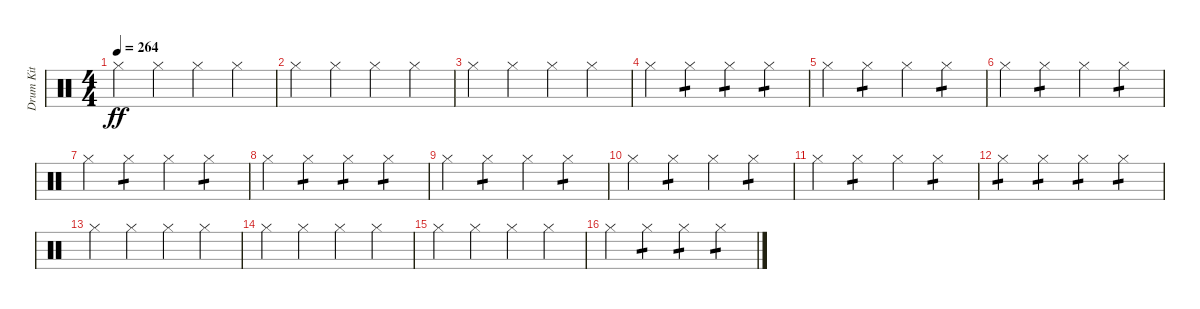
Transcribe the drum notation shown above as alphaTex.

\track ("Drum Kit" "Drum Kit") {instrument percussion}
\staff {score}
\articulation defaults
\ts (4 4)
\tempo 264
\clef neutral
\ks c "Hi-Hat (closed)".4{dy ff} "Hi-Hat (closed)".4 "Hi-Hat (closed)".4 "Hi-Hat (closed)".4
|
"Hi-Hat (closed)".4 "Hi-Hat (closed)".4 "Hi-Hat (closed)".4 "Hi-Hat (closed)".4 |
"Hi-Hat (closed)".4 "Hi-Hat (closed)".4 "Hi-Hat (closed)".4 "Hi-Hat (closed)".4 |
"Hi-Hat (closed)".4 "Hi-Hat (closed)".4{tp 1} "Hi-Hat (closed)".4{tp 1} "Hi-Hat (closed)".4{tp 1} |
"Hi-Hat (closed)".4 "Hi-Hat (closed)".4{tp 1} "Hi-Hat (closed)".4 "Hi-Hat (closed)".4{tp 1} |
"Hi-Hat (closed)".4 "Hi-Hat (closed)".4{tp 1} "Hi-Hat (closed)".4 "Hi-Hat (closed)".4{tp 1} |
"Hi-Hat (closed)".4 "Hi-Hat (closed)".4{tp 1} "Hi-Hat (closed)".4 "Hi-Hat (closed)".4{tp 1} |
"Hi-Hat (closed)".4 "Hi-Hat (closed)".4{tp 1} "Hi-Hat (closed)".4{tp 1} "Hi-Hat (closed)".4{tp 1} |
"Hi-Hat (closed)".4 "Hi-Hat (closed)".4{tp 1} "Hi-Hat (closed)".4 "Hi-Hat (closed)".4{tp 1} |
"Hi-Hat (closed)".4 "Hi-Hat (closed)".4{tp 1} "Hi-Hat (closed)".4 "Hi-Hat (closed)".4{tp 1} |
"Hi-Hat (closed)".4 "Hi-Hat (closed)".4{tp 1} "Hi-Hat (closed)".4 "Hi-Hat (closed)".4{tp 1} |
"Hi-Hat (closed)".4{tp 1} "Hi-Hat (closed)".4{tp 1} "Hi-Hat (closed)".4{tp 1} "Hi-Hat (closed)".4{tp 1} |
"Hi-Hat (closed)".4 "Hi-Hat (closed)".4 "Hi-Hat (closed)".4 "Hi-Hat (closed)".4 |
"Hi-Hat (closed)".4 "Hi-Hat (closed)".4 "Hi-Hat (closed)".4 "Hi-Hat (closed)".4 |
"Hi-Hat (closed)".4 "Hi-Hat (closed)".4 "Hi-Hat (closed)".4 "Hi-Hat (closed)".4 |
"Hi-Hat (closed)".4 "Hi-Hat (closed)".4{tp 1} "Hi-Hat (closed)".4{tp 1} "Hi-Hat (closed)".4{tp 1}
